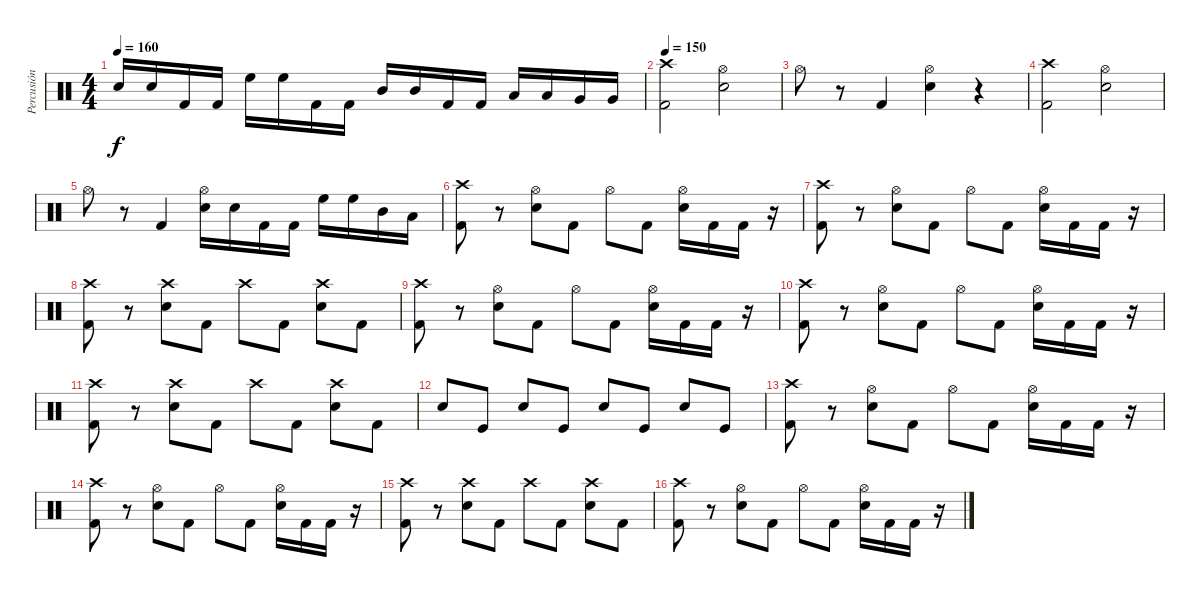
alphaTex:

\track ("Percusión" "Percusión") {instrument percussion}
\staff {score}
\articulation defaults
\ts (4 4)
\tempo 160
\clef neutral
\ks c "Electric Snare (hit)".16{dy f} "Electric Snare (hit)".16 "Kick (hit) 2".16 "Kick (hit) 2".16 "High Floor Tom (hit)".16 "High Floor Tom (hit)".16 "Kick (hit) 2".16 "Kick (hit) 2".16 "Mid Tom (hit)".16 "Mid Tom (hit)".16 "Kick (hit) 2".16 "Kick (hit) 2".16 "Low Tom (hit)".16 "Low Tom (hit)".16 "Very Low Tom (hit)".16 "Very Low Tom (hit)".16
|
\tempo 150
("Crash high (hit)" "Kick (hit) 2").2 ("Hi-Hat (open)" "Electric Snare (hit)").2 |
"Hi-Hat (open)".8 r.8 "Kick (hit) 2".4 ("Hi-Hat (open)" "Electric Snare (hit)").4 r.4 |
("Crash high (hit)" "Kick (hit) 2").2 ("Hi-Hat (open)" "Electric Snare (hit)").2 |
"Hi-Hat (open)".8 r.8 "Kick (hit) 2".4 ("Hi-Hat (open)" "Electric Snare (hit)").16 "Electric Snare (hit)".16 "Kick (hit) 2".16 "Kick (hit) 2".16 "High Floor Tom (hit)".16 "High Floor Tom (hit)".16 "Mid Tom (hit)".16 "Low Tom (hit)".16 |
("Crash high (hit)" "Kick (hit) 2").8 r.8 ("Hi-Hat (open)" "Electric Snare (hit)").8 "Kick (hit) 2".8 "Hi-Hat (open)".8 "Kick (hit) 2".8 ("Hi-Hat (open)" "Electric Snare (hit)").16 "Kick (hit) 2".16 "Kick (hit) 2".16 r.16 |
("Crash high (hit)" "Kick (hit) 2").8 r.8 ("Hi-Hat (open)" "Electric Snare (hit)").8 "Kick (hit) 2".8 "Hi-Hat (open)".8 "Kick (hit) 2".8 ("Hi-Hat (open)" "Electric Snare (hit)").16 "Kick (hit) 2".16 "Kick (hit) 2".16 r.16 |
("Crash high (hit)" "Kick (hit) 2").8 r.8 ("Crash high (hit)" "Electric Snare (hit)").8 "Kick (hit) 2".8 "Crash high (hit)".8 "Kick (hit) 2".8 ("Crash high (hit)" "Electric Snare (hit)").8 "Kick (hit) 2".8 |
("Crash high (hit)" "Kick (hit) 2").8 r.8 ("Hi-Hat (open)" "Electric Snare (hit)").8 "Kick (hit) 2".8 "Hi-Hat (open)".8 "Kick (hit) 2".8 ("Hi-Hat (open)" "Electric Snare (hit)").16 "Kick (hit) 2".16 "Kick (hit) 2".16 r.16 |
("Crash high (hit)" "Kick (hit) 2").8 r.8 ("Hi-Hat (open)" "Electric Snare (hit)").8 "Kick (hit) 2".8 "Hi-Hat (open)".8 "Kick (hit) 2".8 ("Hi-Hat (open)" "Electric Snare (hit)").16 "Kick (hit) 2".16 "Kick (hit) 2".16 r.16 |
("Crash high (hit)" "Kick (hit) 2").8 r.8 ("Crash high (hit)" "Electric Snare (hit)").8 "Kick (hit) 2".8 "Crash high (hit)".8 "Kick (hit) 2".8 ("Crash high (hit)" "Electric Snare (hit)").8 "Kick (hit) 2".8 |
"Electric Snare (hit)".8 "Kick (hit)".8 "Electric Snare (hit)".8 "Kick (hit)".8 "Electric Snare (hit)".8 "Kick (hit)".8 "Electric Snare (hit)".8 "Kick (hit)".8 |
("Crash high (hit)" "Kick (hit) 2").8 r.8 ("Hi-Hat (open)" "Electric Snare (hit)").8 "Kick (hit) 2".8 "Hi-Hat (open)".8 "Kick (hit) 2".8 ("Hi-Hat (open)" "Electric Snare (hit)").16 "Kick (hit) 2".16 "Kick (hit) 2".16 r.16 |
("Crash high (hit)" "Kick (hit) 2").8 r.8 ("Hi-Hat (open)" "Electric Snare (hit)").8 "Kick (hit) 2".8 "Hi-Hat (open)".8 "Kick (hit) 2".8 ("Hi-Hat (open)" "Electric Snare (hit)").16 "Kick (hit) 2".16 "Kick (hit) 2".16 r.16 |
("Crash high (hit)" "Kick (hit) 2").8 r.8 ("Crash high (hit)" "Electric Snare (hit)").8 "Kick (hit) 2".8 "Crash high (hit)".8 "Kick (hit) 2".8 ("Crash high (hit)" "Electric Snare (hit)").8 "Kick (hit) 2".8 |
("Crash high (hit)" "Kick (hit) 2").8 r.8 ("Hi-Hat (open)" "Electric Snare (hit)").8 "Kick (hit) 2".8 "Hi-Hat (open)".8 "Kick (hit) 2".8 ("Hi-Hat (open)" "Electric Snare (hit)").16 "Kick (hit) 2".16 "Kick (hit) 2".16 r.16
